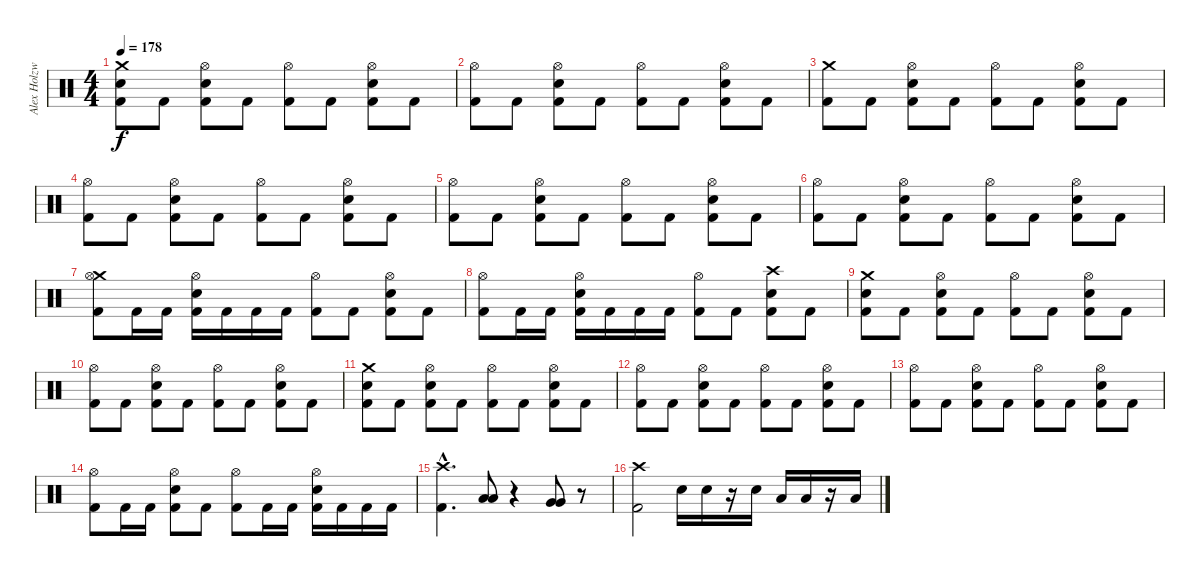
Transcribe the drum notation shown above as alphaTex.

\track ("Alex Holzwarth" "Alex Holzw") {instrument percussion}
\staff {score}
\articulation defaults
\ts (4 4)
\tempo 178
\clef neutral
\ks c
("Crash medium (hit)" "Snare (hit) 2" "Kick (hit) 2").8{dy f} "Kick (hit) 2".8 ("Hi-Hat (open)" "Snare (hit) 2" "Kick (hit) 2").8 "Kick (hit) 2".8 ("Hi-Hat (open)" "Kick (hit) 2").8 "Kick (hit) 2".8 ("Hi-Hat (open)" "Snare (hit) 2" "Kick (hit) 2").8 "Kick (hit) 2".8 |
("Hi-Hat (open)" "Kick (hit) 2").8 "Kick (hit) 2".8 ("Hi-Hat (open)" "Snare (hit) 2" "Kick (hit) 2").8 "Kick (hit) 2".8 ("Hi-Hat (open)" "Kick (hit) 2").8 "Kick (hit) 2".8 ("Hi-Hat (open)" "Snare (hit) 2" "Kick (hit) 2").8 "Kick (hit) 2".8 |
("Crash medium (hit)" "Kick (hit) 2").8 "Kick (hit) 2".8 ("Hi-Hat (open)" "Snare (hit) 2" "Kick (hit) 2").8 "Kick (hit) 2".8 ("Hi-Hat (open)" "Kick (hit) 2").8 "Kick (hit) 2".8 ("Hi-Hat (open)" "Snare (hit) 2" "Kick (hit) 2").8 "Kick (hit) 2".8 |
("Hi-Hat (open)" "Kick (hit) 2").8 "Kick (hit) 2".8 ("Hi-Hat (open)" "Snare (hit) 2" "Kick (hit) 2").8 "Kick (hit) 2".8 ("Hi-Hat (open)" "Kick (hit) 2").8 "Kick (hit) 2".8 ("Hi-Hat (open)" "Snare (hit) 2" "Kick (hit) 2").8 "Kick (hit) 2".8 |
("Hi-Hat (open)" "Kick (hit) 2").8 "Kick (hit) 2".8 ("Hi-Hat (open)" "Snare (hit) 2" "Kick (hit) 2").8 "Kick (hit) 2".8 ("Hi-Hat (open)" "Kick (hit) 2").8 "Kick (hit) 2".8 ("Hi-Hat (open)" "Snare (hit) 2" "Kick (hit) 2").8 "Kick (hit) 2".8 |
("Hi-Hat (open)" "Kick (hit) 2").8 "Kick (hit) 2".8 ("Hi-Hat (open)" "Snare (hit) 2" "Kick (hit) 2").8 "Kick (hit) 2".8 ("Hi-Hat (open)" "Kick (hit) 2").8 "Kick (hit) 2".8 ("Hi-Hat (open)" "Snare (hit) 2" "Kick (hit) 2").8 "Kick (hit) 2".8 |
("Crash medium (hit)" "Hi-Hat (open)" "Kick (hit) 2").8 "Kick (hit) 2".16 "Kick (hit) 2".16 ("Hi-Hat (open)" "Snare (hit) 2" "Kick (hit) 2").16 "Kick (hit) 2".16 "Kick (hit) 2".16 "Kick (hit) 2".16 ("Hi-Hat (open)" "Kick (hit) 2").8 "Kick (hit) 2".8 ("Hi-Hat (open)" "Snare (hit) 2" "Kick (hit) 2").8 "Kick (hit) 2".8 |
("Hi-Hat (open)" "Kick (hit) 2").8 "Kick (hit) 2".16 "Kick (hit) 2".16 ("Hi-Hat (open)" "Snare (hit) 2" "Kick (hit) 2").16 "Kick (hit) 2".16 "Kick (hit) 2".16 "Kick (hit) 2".16 ("Hi-Hat (open)" "Kick (hit) 2").8 "Kick (hit) 2".8 ("Crash high (hit)" "Snare (hit) 2" "Kick (hit) 2").8 "Kick (hit) 2".8 |
("Crash medium (hit)" "Snare (hit) 2" "Kick (hit) 2").8 "Kick (hit) 2".8 ("Hi-Hat (open)" "Snare (hit) 2" "Kick (hit) 2").8 "Kick (hit) 2".8 ("Hi-Hat (open)" "Kick (hit) 2").8 "Kick (hit) 2".8 ("Hi-Hat (open)" "Snare (hit) 2" "Kick (hit) 2").8 "Kick (hit) 2".8 |
("Hi-Hat (open)" "Kick (hit) 2").8 "Kick (hit) 2".8 ("Hi-Hat (open)" "Snare (hit) 2" "Kick (hit) 2").8 "Kick (hit) 2".8 ("Hi-Hat (open)" "Kick (hit) 2").8 "Kick (hit) 2".8 ("Hi-Hat (open)" "Snare (hit) 2" "Kick (hit) 2").8 "Kick (hit) 2".8 |
("Crash medium (hit)" "Snare (hit) 2" "Kick (hit) 2").8 "Kick (hit) 2".8 ("Hi-Hat (open)" "Snare (hit) 2" "Kick (hit) 2").8 "Kick (hit) 2".8 ("Hi-Hat (open)" "Kick (hit) 2").8 "Kick (hit) 2".8 ("Hi-Hat (open)" "Snare (hit) 2" "Kick (hit) 2").8 "Kick (hit) 2".8 |
("Hi-Hat (open)" "Kick (hit) 2").8 "Kick (hit) 2".8 ("Hi-Hat (open)" "Snare (hit) 2" "Kick (hit) 2").8 "Kick (hit) 2".8 ("Hi-Hat (open)" "Kick (hit) 2").8 "Kick (hit) 2".8 ("Hi-Hat (open)" "Snare (hit) 2" "Kick (hit) 2").8 "Kick (hit) 2".8 |
("Hi-Hat (open)" "Kick (hit) 2").8 "Kick (hit) 2".8 ("Hi-Hat (open)" "Snare (hit) 2" "Kick (hit) 2").8 "Kick (hit) 2".8 ("Hi-Hat (open)" "Kick (hit) 2").8 "Kick (hit) 2".8 ("Hi-Hat (open)" "Snare (hit) 2" "Kick (hit) 2").8 "Kick (hit) 2".8 |
("Hi-Hat (open)" "Kick (hit) 2").8 "Kick (hit) 2".16 "Kick (hit) 2".16 ("Hi-Hat (open)" "Snare (hit) 2" "Kick (hit) 2").8 "Kick (hit) 2".8 ("Hi-Hat (open)" "Kick (hit) 2").8 "Kick (hit) 2".16 "Kick (hit) 2".16 ("Hi-Hat (open)" "Snare (hit) 2" "Kick (hit) 2").16 "Kick (hit) 2".16 "Kick (hit) 2".16 "Kick (hit) 2".16 |
("Crash high (hit)"{hac} "Kick (hit) 2"{hac}).4{d} ("Low Tom (hit)" "Low Tom (hit)").8 r.4 ("Very Low Tom (hit)" "Very Low Tom (hit)").8 r.8 |
("Crash high (hit)" "Kick (hit) 2").2 "Snare (hit) 2".16 "Snare (hit) 2".16 r.16 "Snare (hit) 2".16 "Low Tom (hit)".16 "Low Tom (hit)".16 r.16 "Low Tom (hit)".16
